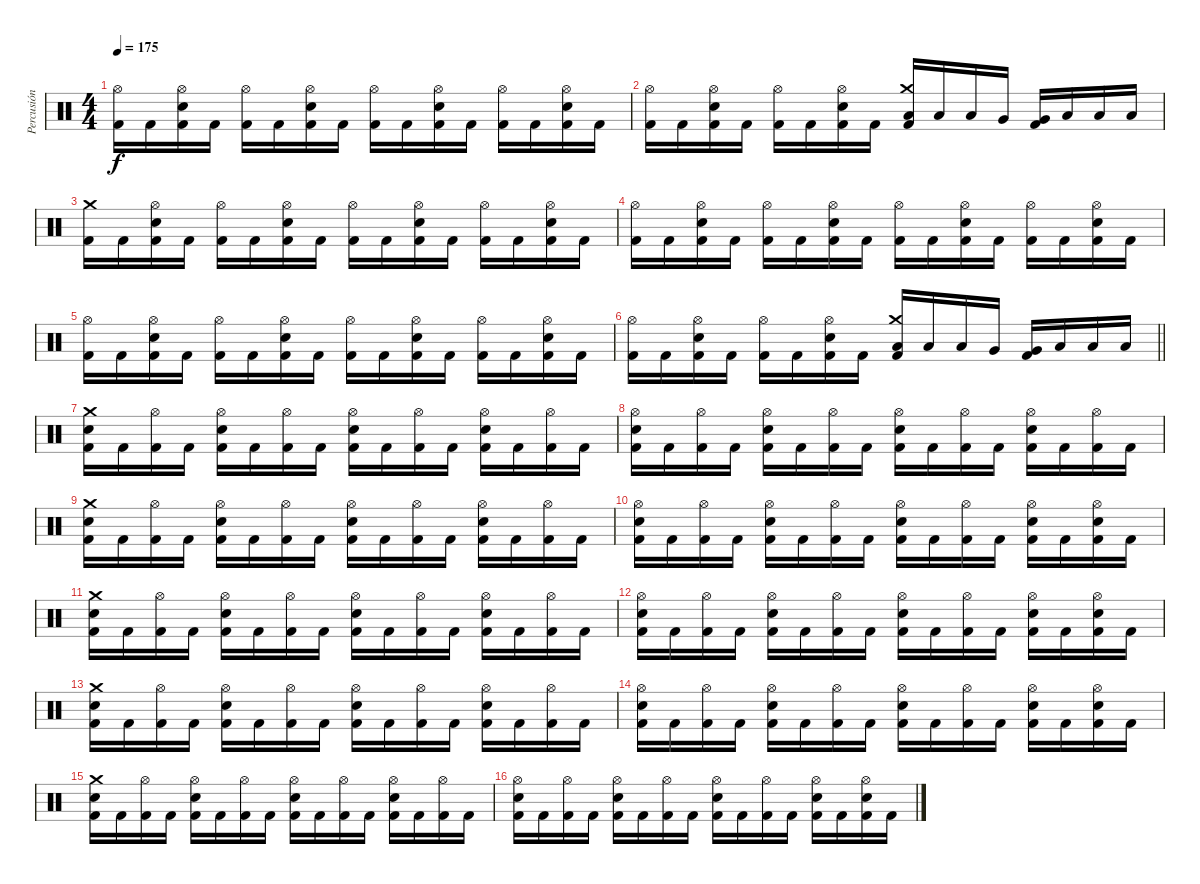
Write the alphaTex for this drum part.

\track ("Percusión" "Percusión") {instrument percussion}
\staff {score}
\articulation defaults
\ts (4 4)
\tempo 175
\clef neutral
\ks c
("Hi-Hat (open)" "Kick (hit) 2").16{dy f} "Kick (hit) 2".16 ("Hi-Hat (open)" "Electric Snare (hit)" "Kick (hit) 2").16 "Kick (hit) 2".16 ("Hi-Hat (open)" "Kick (hit) 2").16 "Kick (hit) 2".16 ("Hi-Hat (open)" "Electric Snare (hit)" "Kick (hit) 2").16 "Kick (hit) 2".16 ("Hi-Hat (open)" "Kick (hit) 2").16 "Kick (hit) 2".16 ("Hi-Hat (open)" "Electric Snare (hit)" "Kick (hit) 2").16 "Kick (hit) 2".16 ("Hi-Hat (open)" "Kick (hit) 2").16 "Kick (hit) 2".16 ("Hi-Hat (open)" "Electric Snare (hit)" "Kick (hit) 2").16 "Kick (hit) 2".16 |
("Hi-Hat (open)" "Kick (hit) 2").16 "Kick (hit) 2".16 ("Hi-Hat (open)" "Electric Snare (hit)" "Kick (hit) 2").16 "Kick (hit) 2".16 ("Hi-Hat (open)" "Kick (hit) 2").16 "Kick (hit) 2".16 ("Hi-Hat (open)" "Electric Snare (hit)" "Kick (hit) 2").16 "Kick (hit) 2".16 ("Crash medium (hit)" "Low Tom (hit)" "Kick (hit) 2").16 "Low Tom (hit)".16 "Low Tom (hit)".16 "Very Low Tom (hit)".16 ("Very Low Tom (hit)" "Kick (hit) 2").16 "Low Floor Tom (hit)".16 "Low Floor Tom (hit)".16 "Low Floor Tom (hit)".16 |
("Crash medium (hit)" "Kick (hit) 2").16 "Kick (hit) 2".16 ("Hi-Hat (open)" "Electric Snare (hit)" "Kick (hit) 2").16 "Kick (hit) 2".16 ("Hi-Hat (open)" "Kick (hit) 2").16 "Kick (hit) 2".16 ("Hi-Hat (open)" "Electric Snare (hit)" "Kick (hit) 2").16 "Kick (hit) 2".16 ("Hi-Hat (open)" "Kick (hit) 2").16 "Kick (hit) 2".16 ("Hi-Hat (open)" "Electric Snare (hit)" "Kick (hit) 2").16 "Kick (hit) 2".16 ("Hi-Hat (open)" "Kick (hit) 2").16 "Kick (hit) 2".16 ("Hi-Hat (open)" "Electric Snare (hit)" "Kick (hit) 2").16 "Kick (hit) 2".16 |
("Hi-Hat (open)" "Kick (hit) 2").16 "Kick (hit) 2".16 ("Hi-Hat (open)" "Electric Snare (hit)" "Kick (hit) 2").16 "Kick (hit) 2".16 ("Hi-Hat (open)" "Kick (hit) 2").16 "Kick (hit) 2".16 ("Hi-Hat (open)" "Electric Snare (hit)" "Kick (hit) 2").16 "Kick (hit) 2".16 ("Hi-Hat (open)" "Kick (hit) 2").16 "Kick (hit) 2".16 ("Hi-Hat (open)" "Electric Snare (hit)" "Kick (hit) 2").16 "Kick (hit) 2".16 ("Hi-Hat (open)" "Kick (hit) 2").16 "Kick (hit) 2".16 ("Hi-Hat (open)" "Electric Snare (hit)" "Kick (hit) 2").16 "Kick (hit) 2".16 |
("Hi-Hat (open)" "Kick (hit) 2").16 "Kick (hit) 2".16 ("Hi-Hat (open)" "Electric Snare (hit)" "Kick (hit) 2").16 "Kick (hit) 2".16 ("Hi-Hat (open)" "Kick (hit) 2").16 "Kick (hit) 2".16 ("Hi-Hat (open)" "Electric Snare (hit)" "Kick (hit) 2").16 "Kick (hit) 2".16 ("Hi-Hat (open)" "Kick (hit) 2").16 "Kick (hit) 2".16 ("Hi-Hat (open)" "Electric Snare (hit)" "Kick (hit) 2").16 "Kick (hit) 2".16 ("Hi-Hat (open)" "Kick (hit) 2").16 "Kick (hit) 2".16 ("Hi-Hat (open)" "Electric Snare (hit)" "Kick (hit) 2").16 "Kick (hit) 2".16 |
\barLineRight lightlight
("Hi-Hat (open)" "Kick (hit) 2").16 "Kick (hit) 2".16 ("Hi-Hat (open)" "Electric Snare (hit)" "Kick (hit) 2").16 "Kick (hit) 2".16 ("Hi-Hat (open)" "Kick (hit) 2").16 "Kick (hit) 2".16 ("Hi-Hat (open)" "Electric Snare (hit)" "Kick (hit) 2").16 "Kick (hit) 2".16 ("Crash medium (hit)" "Low Tom (hit)" "Kick (hit) 2").16 "Low Tom (hit)".16 "Low Tom (hit)".16 "Very Low Tom (hit)".16 ("Very Low Tom (hit)" "Kick (hit) 2").16 "Low Floor Tom (hit)".16 "Low Floor Tom (hit)".16 "Low Floor Tom (hit)".16 |
("Crash medium (hit)" "Electric Snare (hit)" "Kick (hit) 2").16 "Kick (hit) 2".16 ("Hi-Hat (open)" "Kick (hit) 2").16 "Kick (hit) 2".16 ("Hi-Hat (open)" "Electric Snare (hit)" "Kick (hit) 2").16 "Kick (hit) 2".16 ("Hi-Hat (open)" "Kick (hit) 2").16 "Kick (hit) 2".16 ("Hi-Hat (open)" "Electric Snare (hit)" "Kick (hit) 2").16 "Kick (hit) 2".16 ("Hi-Hat (open)" "Kick (hit) 2").16 "Kick (hit) 2".16 ("Hi-Hat (open)" "Electric Snare (hit)" "Kick (hit) 2").16 "Kick (hit) 2".16 ("Hi-Hat (open)" "Kick (hit) 2").16 "Kick (hit) 2".16 |
("Hi-Hat (open)" "Electric Snare (hit)" "Kick (hit) 2").16 "Kick (hit) 2".16 ("Hi-Hat (open)" "Kick (hit) 2").16 "Kick (hit) 2".16 ("Hi-Hat (open)" "Electric Snare (hit)" "Kick (hit) 2").16 "Kick (hit) 2".16 ("Hi-Hat (open)" "Kick (hit) 2").16 "Kick (hit) 2".16 ("Hi-Hat (open)" "Electric Snare (hit)" "Kick (hit) 2").16 "Kick (hit) 2".16 ("Hi-Hat (open)" "Kick (hit) 2").16 "Kick (hit) 2".16 ("Hi-Hat (open)" "Electric Snare (hit)" "Kick (hit) 2").16 "Kick (hit) 2".16 ("Hi-Hat (open)" "Kick (hit) 2").16 "Kick (hit) 2".16 |
("Crash medium (hit)" "Electric Snare (hit)" "Kick (hit) 2").16 "Kick (hit) 2".16 ("Hi-Hat (open)" "Kick (hit) 2").16 "Kick (hit) 2".16 ("Hi-Hat (open)" "Electric Snare (hit)" "Kick (hit) 2").16 "Kick (hit) 2".16 ("Hi-Hat (open)" "Kick (hit) 2").16 "Kick (hit) 2".16 ("Hi-Hat (open)" "Electric Snare (hit)" "Kick (hit) 2").16 "Kick (hit) 2".16 ("Hi-Hat (open)" "Kick (hit) 2").16 "Kick (hit) 2".16 ("Hi-Hat (open)" "Electric Snare (hit)" "Kick (hit) 2").16 "Kick (hit) 2".16 ("Hi-Hat (open)" "Kick (hit) 2").16 "Kick (hit) 2".16 |
("Hi-Hat (open)" "Electric Snare (hit)" "Kick (hit) 2").16 "Kick (hit) 2".16 ("Hi-Hat (open)" "Kick (hit) 2").16 "Kick (hit) 2".16 ("Hi-Hat (open)" "Electric Snare (hit)" "Kick (hit) 2").16 "Kick (hit) 2".16 ("Hi-Hat (open)" "Kick (hit) 2").16 "Kick (hit) 2".16 ("Hi-Hat (open)" "Electric Snare (hit)" "Kick (hit) 2").16 "Kick (hit) 2".16 ("Hi-Hat (open)" "Kick (hit) 2").16 "Kick (hit) 2".16 ("Hi-Hat (open)" "Electric Snare (hit)" "Kick (hit) 2").16 "Kick (hit) 2".16 ("Hi-Hat (open)" "Electric Snare (hit)" "Kick (hit) 2").16 "Kick (hit) 2".16 |
("Crash medium (hit)" "Electric Snare (hit)" "Kick (hit) 2").16 "Kick (hit) 2".16 ("Hi-Hat (open)" "Kick (hit) 2").16 "Kick (hit) 2".16 ("Hi-Hat (open)" "Electric Snare (hit)" "Kick (hit) 2").16 "Kick (hit) 2".16 ("Hi-Hat (open)" "Kick (hit) 2").16 "Kick (hit) 2".16 ("Hi-Hat (open)" "Electric Snare (hit)" "Kick (hit) 2").16 "Kick (hit) 2".16 ("Hi-Hat (open)" "Kick (hit) 2").16 "Kick (hit) 2".16 ("Hi-Hat (open)" "Electric Snare (hit)" "Kick (hit) 2").16 "Kick (hit) 2".16 ("Hi-Hat (open)" "Kick (hit) 2").16 "Kick (hit) 2".16 |
("Hi-Hat (open)" "Electric Snare (hit)" "Kick (hit) 2").16 "Kick (hit) 2".16 ("Hi-Hat (open)" "Kick (hit) 2").16 "Kick (hit) 2".16 ("Hi-Hat (open)" "Electric Snare (hit)" "Kick (hit) 2").16 "Kick (hit) 2".16 ("Hi-Hat (open)" "Kick (hit) 2").16 "Kick (hit) 2".16 ("Hi-Hat (open)" "Electric Snare (hit)" "Kick (hit) 2").16 "Kick (hit) 2".16 ("Hi-Hat (open)" "Kick (hit) 2").16 "Kick (hit) 2".16 ("Hi-Hat (open)" "Electric Snare (hit)" "Kick (hit) 2").16 "Kick (hit) 2".16 ("Hi-Hat (open)" "Electric Snare (hit)" "Kick (hit) 2").16 "Kick (hit) 2".16 |
("Crash medium (hit)" "Electric Snare (hit)" "Kick (hit) 2").16 "Kick (hit) 2".16 ("Hi-Hat (open)" "Kick (hit) 2").16 "Kick (hit) 2".16 ("Hi-Hat (open)" "Electric Snare (hit)" "Kick (hit) 2").16 "Kick (hit) 2".16 ("Hi-Hat (open)" "Kick (hit) 2").16 "Kick (hit) 2".16 ("Hi-Hat (open)" "Electric Snare (hit)" "Kick (hit) 2").16 "Kick (hit) 2".16 ("Hi-Hat (open)" "Kick (hit) 2").16 "Kick (hit) 2".16 ("Hi-Hat (open)" "Electric Snare (hit)" "Kick (hit) 2").16 "Kick (hit) 2".16 ("Hi-Hat (open)" "Kick (hit) 2").16 "Kick (hit) 2".16 |
("Hi-Hat (open)" "Electric Snare (hit)" "Kick (hit) 2").16 "Kick (hit) 2".16 ("Hi-Hat (open)" "Kick (hit) 2").16 "Kick (hit) 2".16 ("Hi-Hat (open)" "Electric Snare (hit)" "Kick (hit) 2").16 "Kick (hit) 2".16 ("Hi-Hat (open)" "Kick (hit) 2").16 "Kick (hit) 2".16 ("Hi-Hat (open)" "Electric Snare (hit)" "Kick (hit) 2").16 "Kick (hit) 2".16 ("Hi-Hat (open)" "Kick (hit) 2").16 "Kick (hit) 2".16 ("Hi-Hat (open)" "Electric Snare (hit)" "Kick (hit) 2").16 "Kick (hit) 2".16 ("Hi-Hat (open)" "Electric Snare (hit)" "Kick (hit) 2").16 "Kick (hit) 2".16 |
("Crash medium (hit)" "Electric Snare (hit)" "Kick (hit) 2").16 "Kick (hit) 2".16 ("Hi-Hat (open)" "Kick (hit) 2").16 "Kick (hit) 2".16 ("Hi-Hat (open)" "Electric Snare (hit)" "Kick (hit) 2").16 "Kick (hit) 2".16 ("Hi-Hat (open)" "Kick (hit) 2").16 "Kick (hit) 2".16 ("Hi-Hat (open)" "Electric Snare (hit)" "Kick (hit) 2").16 "Kick (hit) 2".16 ("Hi-Hat (open)" "Kick (hit) 2").16 "Kick (hit) 2".16 ("Hi-Hat (open)" "Electric Snare (hit)" "Kick (hit) 2").16 "Kick (hit) 2".16 ("Hi-Hat (open)" "Kick (hit) 2").16 "Kick (hit) 2".16 |
("Hi-Hat (open)" "Electric Snare (hit)" "Kick (hit) 2").16 "Kick (hit) 2".16 ("Hi-Hat (open)" "Kick (hit) 2").16 "Kick (hit) 2".16 ("Hi-Hat (open)" "Electric Snare (hit)" "Kick (hit) 2").16 "Kick (hit) 2".16 ("Hi-Hat (open)" "Kick (hit) 2").16 "Kick (hit) 2".16 ("Hi-Hat (open)" "Electric Snare (hit)" "Kick (hit) 2").16 "Kick (hit) 2".16 ("Hi-Hat (open)" "Kick (hit) 2").16 "Kick (hit) 2".16 ("Hi-Hat (open)" "Electric Snare (hit)" "Kick (hit) 2").16 "Kick (hit) 2".16 ("Hi-Hat (open)" "Electric Snare (hit)" "Kick (hit) 2").16 "Kick (hit) 2".16
